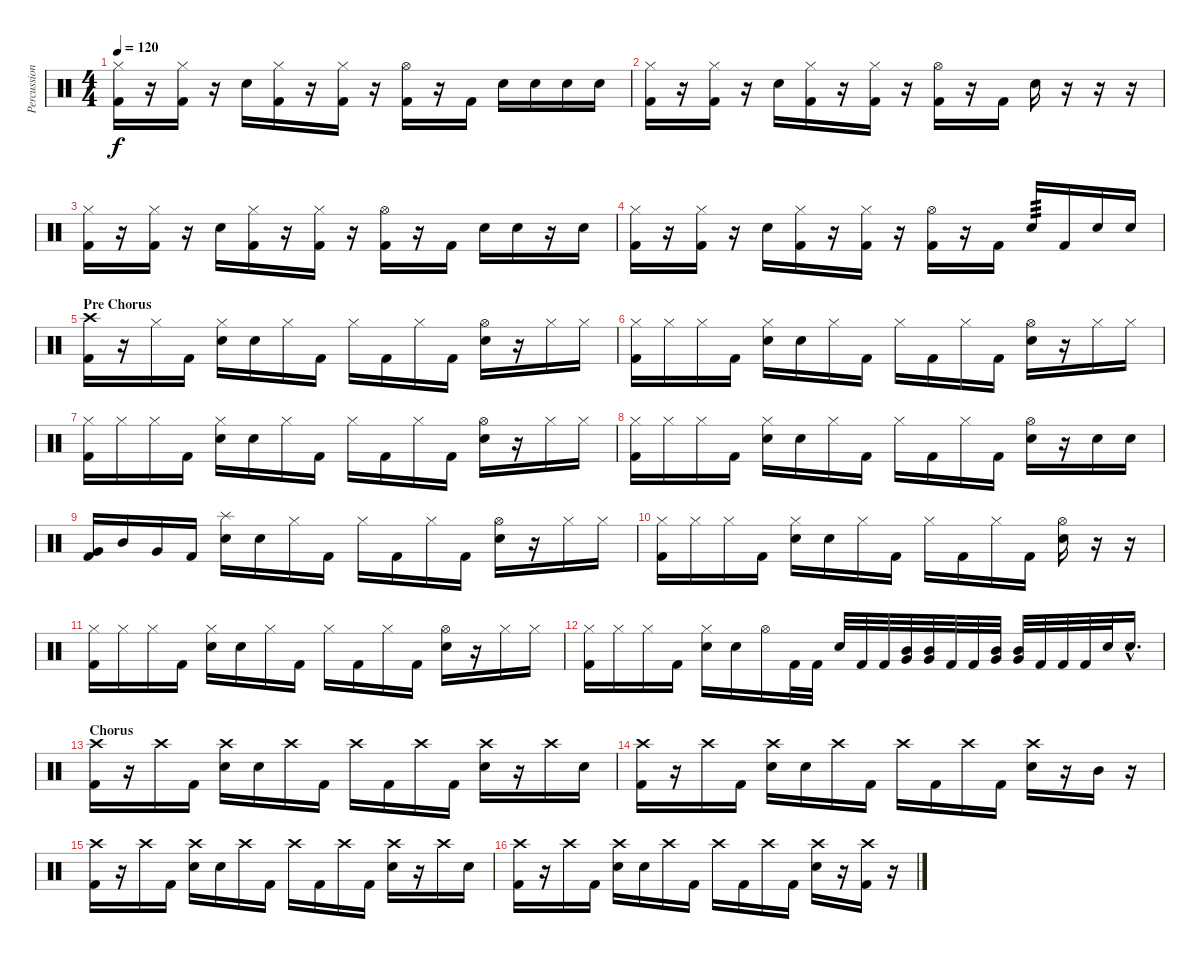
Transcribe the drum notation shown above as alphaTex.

\track ("Percussion" "Percussion") {instrument percussion}
\staff {score}
\articulation defaults
\ts (4 4)
\tempo 120
\clef neutral
\ks c
("Hi-Hat (closed)" "Kick (hit) 2").16{dy f} r.16 ("Hi-Hat (closed)" "Kick (hit) 2").16 r.16 "Electric Snare (hit)".16 ("Hi-Hat (closed)" "Kick (hit) 2").16 r.16 ("Hi-Hat (closed)" "Kick (hit) 2").16 r.16 ("Hi-Hat (open)" "Kick (hit) 2").16 r.16 "Kick (hit) 2".16 "Electric Snare (hit)".16 "Electric Snare (hit)".16 "Electric Snare (hit)".16 "Electric Snare (hit)".16 |
("Hi-Hat (closed)" "Kick (hit) 2").16 r.16 ("Hi-Hat (closed)" "Kick (hit) 2").16 r.16 "Electric Snare (hit)".16 ("Hi-Hat (closed)" "Kick (hit) 2").16 r.16 ("Hi-Hat (closed)" "Kick (hit) 2").16 r.16 ("Hi-Hat (open)" "Kick (hit) 2").16 r.16 "Kick (hit) 2".16 "Electric Snare (hit)".16 r.16 r.16 r.16 |
("Hi-Hat (closed)" "Kick (hit) 2").16 r.16 ("Hi-Hat (closed)" "Kick (hit) 2").16 r.16 "Electric Snare (hit)".16 ("Hi-Hat (closed)" "Kick (hit) 2").16 r.16 ("Hi-Hat (closed)" "Kick (hit) 2").16 r.16 ("Hi-Hat (open)" "Kick (hit) 2").16 r.16 "Kick (hit) 2".16 "Electric Snare (hit)".16 "Electric Snare (hit)".16 r.16 "Electric Snare (hit)".16 |
("Hi-Hat (closed)" "Kick (hit) 2").16 r.16 ("Hi-Hat (closed)" "Kick (hit) 2").16 r.16 "Electric Snare (hit)".16 ("Hi-Hat (closed)" "Kick (hit) 2").16 r.16 ("Hi-Hat (closed)" "Kick (hit) 2").16 r.16 ("Hi-Hat (open)" "Kick (hit) 2").16 r.16 "Kick (hit) 2".16 "Electric Snare (hit)".16{tp 3} "Kick (hit) 2".16 "Electric Snare (hit)".16 "Electric Snare (hit)".16 |
\section ("" "Pre Chorus")
("Crash high (hit)" "Kick (hit) 2").16 r.16 "Hi-Hat (closed)".16 "Kick (hit) 2".16 ("Hi-Hat (closed)" "Electric Snare (hit)").16 "Electric Snare (hit)".16 "Hi-Hat (closed)".16 "Kick (hit) 2".16 "Hi-Hat (closed)".16 "Kick (hit) 2".16 "Hi-Hat (closed)".16 "Kick (hit) 2".16 ("Hi-Hat (open)" "Electric Snare (hit)").16 r.16 "Hi-Hat (closed)".16 "Hi-Hat (closed)".16 |
("Hi-Hat (closed)" "Kick (hit) 2").16 "Hi-Hat (closed)".16 "Hi-Hat (closed)".16 "Kick (hit) 2".16 ("Hi-Hat (closed)" "Electric Snare (hit)").16 "Electric Snare (hit)".16 "Hi-Hat (closed)".16 "Kick (hit) 2".16 "Hi-Hat (closed)".16 "Kick (hit) 2".16 "Hi-Hat (closed)".16 "Kick (hit) 2".16 ("Hi-Hat (open)" "Electric Snare (hit)").16 r.16 "Hi-Hat (closed)".16 "Hi-Hat (closed)".16 |
("Hi-Hat (closed)" "Kick (hit) 2").16 "Hi-Hat (closed)".16 "Hi-Hat (closed)".16 "Kick (hit) 2".16 ("Hi-Hat (closed)" "Electric Snare (hit)").16 "Electric Snare (hit)".16 "Hi-Hat (closed)".16 "Kick (hit) 2".16 "Hi-Hat (closed)".16 "Kick (hit) 2".16 "Hi-Hat (closed)".16 "Kick (hit) 2".16 ("Hi-Hat (open)" "Electric Snare (hit)").16 r.16 "Hi-Hat (closed)".16 "Hi-Hat (closed)".16 |
("Hi-Hat (closed)" "Kick (hit) 2").16 "Hi-Hat (closed)".16 "Hi-Hat (closed)".16 "Kick (hit) 2".16 ("Hi-Hat (closed)" "Electric Snare (hit)").16 "Electric Snare (hit)".16 "Hi-Hat (closed)".16 "Kick (hit) 2".16 "Hi-Hat (closed)".16 "Kick (hit) 2".16 "Hi-Hat (closed)".16 "Kick (hit) 2".16 ("Hi-Hat (open)" "Electric Snare (hit)").16 r.16 "Electric Snare (hit)".16 "Electric Snare (hit)".16 |
("Very Low Tom (hit)" "Kick (hit) 2").16 "Mid Tom (hit)".16 "Very Low Tom (hit)".16 "Kick (hit) 2".16 ("Splash (hit)" "Electric Snare (hit)").16 "Electric Snare (hit)".16 "Hi-Hat (closed)".16 "Kick (hit) 2".16 "Hi-Hat (closed)".16 "Kick (hit) 2".16 "Hi-Hat (closed)".16 "Kick (hit) 2".16 ("Hi-Hat (open)" "Electric Snare (hit)").16 r.16 "Hi-Hat (closed)".16 "Hi-Hat (closed)".16 |
("Hi-Hat (closed)" "Kick (hit) 2").16 "Hi-Hat (closed)".16 "Hi-Hat (closed)".16 "Kick (hit) 2".16 ("Hi-Hat (closed)" "Electric Snare (hit)").16 "Electric Snare (hit)".16 "Hi-Hat (closed)".16 "Kick (hit) 2".16 "Hi-Hat (closed)".16 "Kick (hit) 2".16 "Hi-Hat (closed)".16 "Kick (hit) 2".16 ("Hi-Hat (open)" "Electric Snare (hit)").16 r.16 r.16 |
("Hi-Hat (closed)" "Kick (hit) 2").16 "Hi-Hat (closed)".16 "Hi-Hat (closed)".16 "Kick (hit) 2".16 ("Hi-Hat (closed)" "Electric Snare (hit)").16 "Electric Snare (hit)".16 "Hi-Hat (closed)".16 "Kick (hit) 2".16 "Hi-Hat (closed)".16 "Kick (hit) 2".16 "Hi-Hat (closed)".16 "Kick (hit) 2".16 ("Hi-Hat (open)" "Electric Snare (hit)").16 r.16 "Hi-Hat (closed)".16 "Hi-Hat (closed)".16 |
("Hi-Hat (closed)" "Kick (hit) 2").16 "Hi-Hat (closed)".16 "Hi-Hat (closed)".16 "Kick (hit) 2".16 ("Hi-Hat (closed)" "Electric Snare (hit)").16 "Electric Snare (hit)".16 "Hi-Hat (open)".16 "Kick (hit) 2".32 "Kick (hit) 2".32 "Electric Snare (hit)"{tr (40 64)}.32 "Kick (hit) 2".32 "Kick (hit) 2".32 ("Mid Tom (hit)" "Very Low Tom (hit)").32 ("Mid Tom (hit)" "Very Low Tom (hit)").32 "Kick (hit) 2".32 "Kick (hit) 2".32 ("Mid Tom (hit)" "Very Low Tom (hit)").32 ("Mid Tom (hit)" "Very Low Tom (hit)").32 "Kick (hit) 2".32 "Kick (hit) 2".32 "Kick (hit) 2".32 "Electric Snare (hit)".32 "Electric Snare (hit)"{hac}.16{d} |
\section ("" "Chorus")
("Crash high (hit)" "Kick (hit) 2").16 r.16 "Crash high (hit)".16 "Kick (hit) 2".16 ("Crash high (hit)" "Electric Snare (hit)").16 "Electric Snare (hit)".16 "Crash high (hit)".16 "Kick (hit) 2".16 "Crash high (hit)".16 "Kick (hit) 2".16 "Crash high (hit)".16 "Kick (hit) 2".16 ("Crash high (hit)" "Electric Snare (hit)").16 r.16 "Crash high (hit)".16 "Electric Snare (hit)".16 |
("Crash high (hit)" "Kick (hit) 2").16 r.16 "Crash high (hit)".16 "Kick (hit) 2".16 ("Crash high (hit)" "Electric Snare (hit)").16 "Electric Snare (hit)".16 "Crash high (hit)".16 "Kick (hit) 2".16 "Crash high (hit)".16 "Kick (hit) 2".16 "Crash high (hit)".16 "Kick (hit) 2".16 ("Crash high (hit)" "Electric Snare (hit)").16 r.16 "Mid Tom (hit)".16 r.16 |
("Crash high (hit)" "Kick (hit) 2").16 r.16 "Crash high (hit)".16 "Kick (hit) 2".16 ("Crash high (hit)" "Electric Snare (hit)").16 "Electric Snare (hit)".16 "Crash high (hit)".16 "Kick (hit) 2".16 "Crash high (hit)".16 "Kick (hit) 2".16 "Crash high (hit)".16 "Kick (hit) 2".16 ("Crash high (hit)" "Electric Snare (hit)").16 r.16 "Crash high (hit)".16 "Electric Snare (hit)".16 |
("Crash high (hit)" "Kick (hit) 2").16 r.16 "Crash high (hit)".16 "Kick (hit) 2".16 ("Crash high (hit)" "Electric Snare (hit)").16 "Electric Snare (hit)".16 "Crash high (hit)".16 "Kick (hit) 2".16 "Crash high (hit)".16 "Kick (hit) 2".16 "Crash high (hit)".16 "Kick (hit) 2".16 ("Crash high (hit)" "Electric Snare (hit)").16 r.16 ("Crash high (hit)" "Kick (hit) 2").16 r.16
